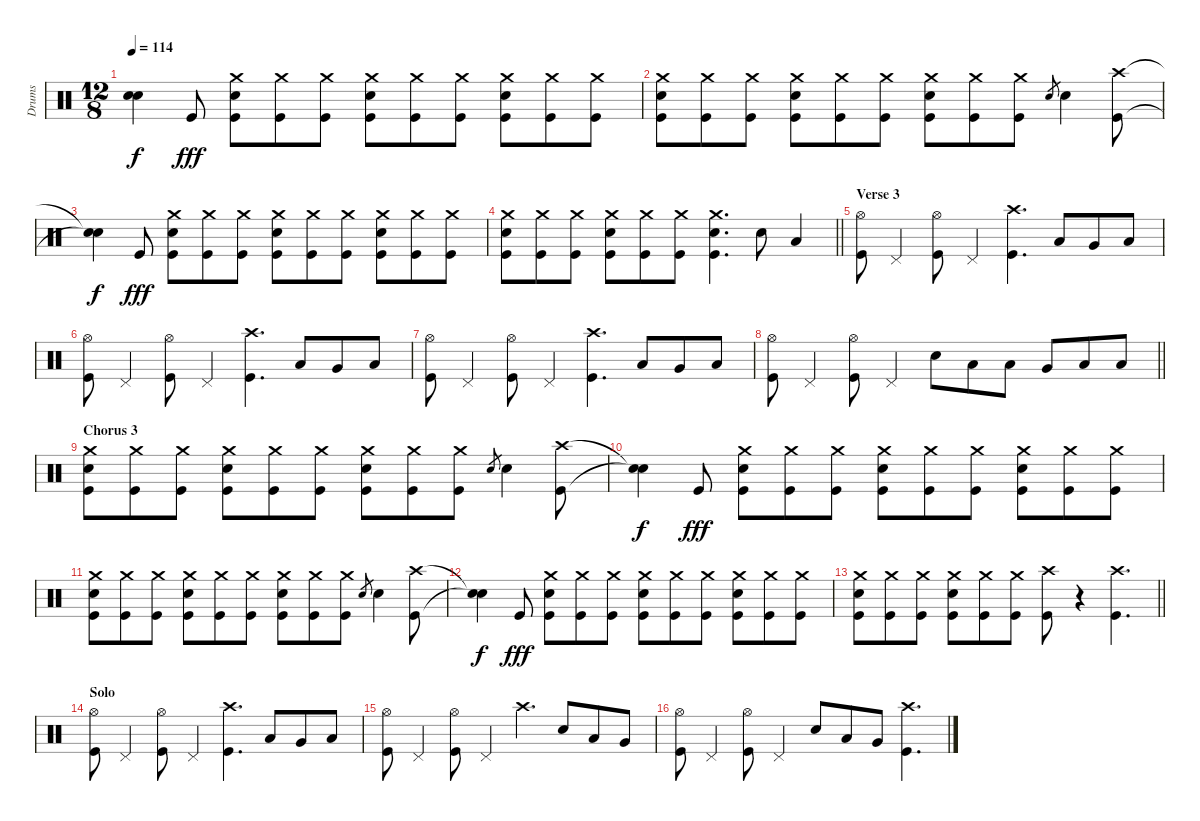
\track ("Drums" "Drums") {instrument percussion}
\staff {score}
\articulation defaults
\ts (12 8)
\tempo 114
\clef neutral
\ks c
("Snare (hit)"{t} "Snare (hit)"{t}).4{dy f} "Kick (hit)".8{dy fff} ("Crash medium (hit)" "Snare (hit) 2" "Kick (hit)").8 ("Crash medium (hit)" "Kick (hit)").8 ("Crash medium (hit)" "Kick (hit)").8 ("Crash medium (hit)" "Snare (hit) 2" "Kick (hit)").8 ("Crash medium (hit)" "Kick (hit)").8 ("Crash medium (hit)" "Kick (hit)").8 ("Crash medium (hit)" "Snare (hit) 2" "Kick (hit)").8 ("Crash medium (hit)" "Kick (hit)").8 ("Crash medium (hit)" "Kick (hit)").8 |
("Crash medium (hit)" "Snare (hit) 2" "Kick (hit)").8 ("Crash medium (hit)" "Kick (hit)").8 ("Crash medium (hit)" "Kick (hit)").8 ("Crash medium (hit)" "Snare (hit) 2" "Kick (hit)").8 ("Crash medium (hit)" "Kick (hit)").8 ("Crash medium (hit)" "Kick (hit)").8 ("Crash medium (hit)" "Snare (hit) 2" "Kick (hit)").8 ("Crash medium (hit)" "Kick (hit)").8 ("Crash medium (hit)" "Kick (hit)").8 "Snare (hit) 2".8{gr} "Snare (hit) 2".4 ("Crash high (hit)" "Kick (hit)").8 |
("Snare (hit)"{t} "Snare (hit)"{t}).4{dy f} "Kick (hit)".8{dy fff} ("Crash medium (hit)" "Snare (hit) 2" "Kick (hit)").8 ("Crash medium (hit)" "Kick (hit)").8 ("Crash medium (hit)" "Kick (hit)").8 ("Crash medium (hit)" "Snare (hit) 2" "Kick (hit)").8 ("Crash medium (hit)" "Kick (hit)").8 ("Crash medium (hit)" "Kick (hit)").8 ("Crash medium (hit)" "Snare (hit) 2" "Kick (hit)").8 ("Crash medium (hit)" "Kick (hit)").8 ("Crash medium (hit)" "Kick (hit)").8 |
\barLineRight lightlight
("Crash medium (hit)" "Snare (hit) 2" "Kick (hit)").8 ("Crash medium (hit)" "Kick (hit)").8 ("Crash medium (hit)" "Kick (hit)").8 ("Crash medium (hit)" "Snare (hit) 2" "Kick (hit)").8 ("Crash medium (hit)" "Kick (hit)").8 ("Crash medium (hit)" "Kick (hit)").8 ("Crash medium (hit)" "Snare (hit) 2" "Kick (hit)").4{d} "Snare (hit) 2".8 "Low Tom (hit)".4 |
\section ("" "Verse 3")
("Hi-Hat (open)" "Kick (hit)").8 "Pedal Hi-Hat (hit)".4 ("Hi-Hat (open)" "Kick (hit)").8 "Pedal Hi-Hat (hit)".4 ("Crash high (hit)" "Kick (hit)").4{d} "Low Tom (hit)".8 "Very Low Tom (hit)".8 "Low Floor Tom (hit)".8 |
("Hi-Hat (open)" "Kick (hit)").8 "Pedal Hi-Hat (hit)".4 ("Hi-Hat (open)" "Kick (hit)").8 "Pedal Hi-Hat (hit)".4 ("Crash high (hit)" "Kick (hit)").4{d} "Low Tom (hit)".8 "Very Low Tom (hit)".8 "Low Floor Tom (hit)".8 |
("Hi-Hat (open)" "Kick (hit)").8 "Pedal Hi-Hat (hit)".4 ("Hi-Hat (open)" "Kick (hit)").8 "Pedal Hi-Hat (hit)".4 ("Crash high (hit)" "Kick (hit)").4{d} "Low Tom (hit)".8 "Very Low Tom (hit)".8 "Low Floor Tom (hit)".8 |
\barLineRight lightlight
("Hi-Hat (open)" "Kick (hit)").8 "Pedal Hi-Hat (hit)".4 ("Hi-Hat (open)" "Kick (hit)").8 "Pedal Hi-Hat (hit)".4 "Snare (hit) 2".8 "Low Tom (hit)".8 "Low Tom (hit)".8 "Very Low Tom (hit)".8 "Low Floor Tom (hit)".8 "Low Floor Tom (hit)".8 |
\section ("" "Chorus 3")
("Crash medium (hit)" "Snare (hit) 2" "Kick (hit)").8 ("Crash medium (hit)" "Kick (hit)").8 ("Crash medium (hit)" "Kick (hit)").8 ("Crash medium (hit)" "Snare (hit) 2" "Kick (hit)").8 ("Crash medium (hit)" "Kick (hit)").8 ("Crash medium (hit)" "Kick (hit)").8 ("Crash medium (hit)" "Snare (hit) 2" "Kick (hit)").8 ("Crash medium (hit)" "Kick (hit)").8 ("Crash medium (hit)" "Kick (hit)").8 "Snare (hit) 2".8{gr} "Snare (hit) 2".4 ("Crash high (hit)" "Kick (hit)").8 |
("Snare (hit)"{t} "Snare (hit)"{t}).4{dy f} "Kick (hit)".8{dy fff} ("Crash medium (hit)" "Snare (hit) 2" "Kick (hit)").8 ("Crash medium (hit)" "Kick (hit)").8 ("Crash medium (hit)" "Kick (hit)").8 ("Crash medium (hit)" "Snare (hit) 2" "Kick (hit)").8 ("Crash medium (hit)" "Kick (hit)").8 ("Crash medium (hit)" "Kick (hit)").8 ("Crash medium (hit)" "Snare (hit) 2" "Kick (hit)").8 ("Crash medium (hit)" "Kick (hit)").8 ("Crash medium (hit)" "Kick (hit)").8 |
("Crash medium (hit)" "Snare (hit) 2" "Kick (hit)").8 ("Crash medium (hit)" "Kick (hit)").8 ("Crash medium (hit)" "Kick (hit)").8 ("Crash medium (hit)" "Snare (hit) 2" "Kick (hit)").8 ("Crash medium (hit)" "Kick (hit)").8 ("Crash medium (hit)" "Kick (hit)").8 ("Crash medium (hit)" "Snare (hit) 2" "Kick (hit)").8 ("Crash medium (hit)" "Kick (hit)").8 ("Crash medium (hit)" "Kick (hit)").8 "Snare (hit) 2".8{gr} "Snare (hit) 2".4 ("Crash high (hit)" "Kick (hit)").8 |
("Snare (hit)"{t} "Snare (hit)"{t}).4{dy f} "Kick (hit)".8{dy fff} ("Crash medium (hit)" "Snare (hit) 2" "Kick (hit)").8 ("Crash medium (hit)" "Kick (hit)").8 ("Crash medium (hit)" "Kick (hit)").8 ("Crash medium (hit)" "Snare (hit) 2" "Kick (hit)").8 ("Crash medium (hit)" "Kick (hit)").8 ("Crash medium (hit)" "Kick (hit)").8 ("Crash medium (hit)" "Snare (hit) 2" "Kick (hit)").8 ("Crash medium (hit)" "Kick (hit)").8 ("Crash medium (hit)" "Kick (hit)").8 |
\barLineRight lightlight
("Crash medium (hit)" "Snare (hit) 2" "Kick (hit)").8 ("Crash medium (hit)" "Kick (hit)").8 ("Crash medium (hit)" "Kick (hit)").8 ("Crash medium (hit)" "Snare (hit) 2" "Kick (hit)").8 ("Crash medium (hit)" "Kick (hit)").8 ("Crash medium (hit)" "Kick (hit)").8 ("Crash high (hit)" "Kick (hit)").8 r.4 ("Crash high (hit)" "Kick (hit)").4{d} |
\section ("" "Solo")
("Hi-Hat (open)" "Kick (hit)").8 "Pedal Hi-Hat (hit)".4 ("Hi-Hat (open)" "Kick (hit)").8 "Pedal Hi-Hat (hit)".4 ("Crash high (hit)" "Kick (hit)").4{d} "Low Tom (hit)".8 "Very Low Tom (hit)".8 "Low Floor Tom (hit)".8 |
("Hi-Hat (open)" "Kick (hit)").8 "Pedal Hi-Hat (hit)".4 ("Hi-Hat (open)" "Kick (hit)").8 "Pedal Hi-Hat (hit)".4 "Crash high (hit)".4{d} "Snare (hit) 2".8 "Low Tom (hit)".8 "Very Low Tom (hit)".8 |
("Hi-Hat (open)" "Kick (hit)").8 "Pedal Hi-Hat (hit)".4 ("Hi-Hat (open)" "Kick (hit)").8 "Pedal Hi-Hat (hit)".4 "Snare (hit) 2".8 "Low Tom (hit)".8 "Very Low Tom (hit)".8 ("Crash high (hit)" "Kick (hit)").4{d}
